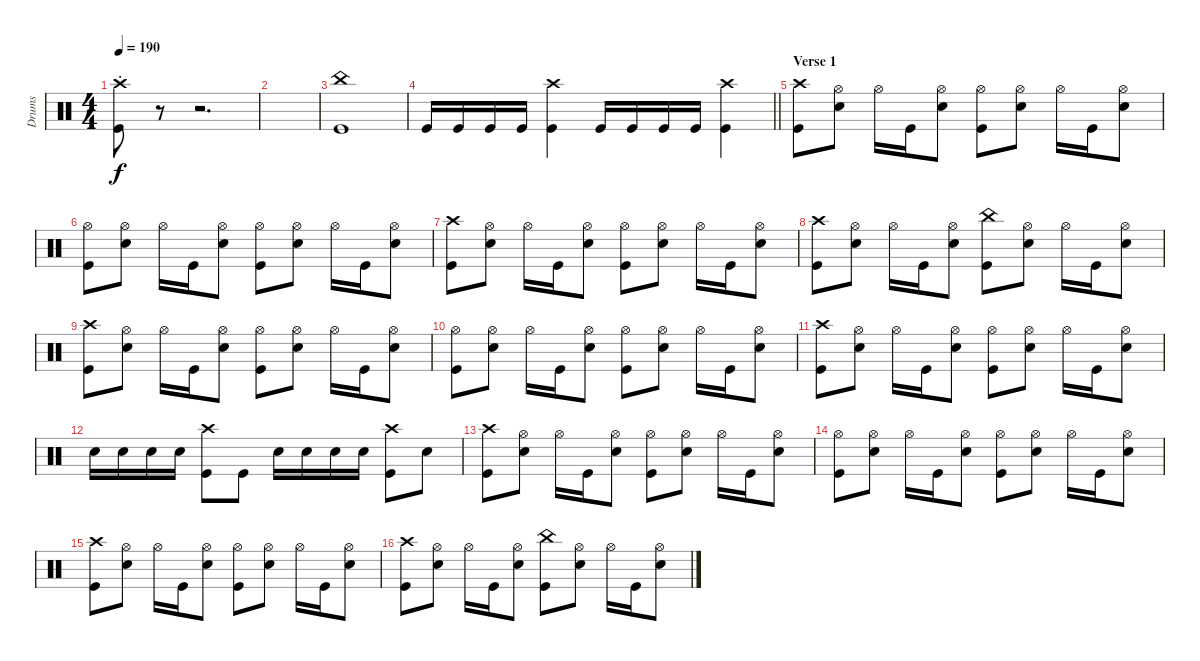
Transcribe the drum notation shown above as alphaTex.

\track ("Drums" "Drums") {instrument percussion}
\staff {score}
\articulation defaults
\ts (4 4)
\section ("" "")
\tempo 190
\clef neutral
\ks c
("Kick (hit)" "Crash high (hit)"{st}).8{dy f} r.8 r.2{d} |
|
("Kick (hit)" "China (hit)").1 |
\barLineRight lightlight "Kick (hit)".16 "Kick (hit)".16 "Kick (hit)".16 "Kick (hit)".16
("Kick (hit)" "Crash high (hit)").4 "Kick (hit)".16 "Kick (hit)".16 "Kick (hit)".16 "Kick (hit)".16 ("Kick (hit)" "Crash high (hit)").4 |
\section ("" "Verse 1")
("Kick (hit)" "Crash high (hit)").8 ("Snare (hit) 2" "Hi-Hat (open)").8 "Hi-Hat (open)".16 "Kick (hit)".16 ("Snare (hit) 2" "Hi-Hat (open)").8 ("Kick (hit)" "Hi-Hat (open)").8 ("Snare (hit) 2" "Hi-Hat (open)").8 "Hi-Hat (open)".16 "Kick (hit)".16 ("Snare (hit) 2" "Hi-Hat (open)").8 |
("Kick (hit)" "Hi-Hat (open)").8 ("Snare (hit) 2" "Hi-Hat (open)").8 "Hi-Hat (open)".16 "Kick (hit)".16 ("Snare (hit) 2" "Hi-Hat (open)").8 ("Kick (hit)" "Hi-Hat (open)").8 ("Snare (hit) 2" "Hi-Hat (open)").8 "Hi-Hat (open)".16 "Kick (hit)".16 ("Snare (hit) 2" "Hi-Hat (open)").8 |
("Kick (hit)" "Crash high (hit)").8 ("Snare (hit) 2" "Hi-Hat (open)").8 "Hi-Hat (open)".16 "Kick (hit)".16 ("Snare (hit) 2" "Hi-Hat (open)").8 ("Kick (hit)" "Hi-Hat (open)").8 ("Snare (hit) 2" "Hi-Hat (open)").8 "Hi-Hat (open)".16 "Kick (hit)".16 ("Snare (hit) 2" "Hi-Hat (open)").8 |
("Kick (hit)" "Crash high (hit)").8 ("Snare (hit) 2" "Hi-Hat (open)").8 "Hi-Hat (open)".16 "Kick (hit)".16 ("Snare (hit) 2" "Hi-Hat (open)").8 ("Kick (hit)" "China (hit)").8 ("Snare (hit) 2" "Hi-Hat (open)").8 "Hi-Hat (open)".16 "Kick (hit)".16 ("Snare (hit) 2" "Hi-Hat (open)").8 |
("Kick (hit)" "Crash high (hit)").8 ("Snare (hit) 2" "Hi-Hat (open)").8 "Hi-Hat (open)".16 "Kick (hit)".16 ("Snare (hit) 2" "Hi-Hat (open)").8 ("Kick (hit)" "Hi-Hat (open)").8 ("Snare (hit) 2" "Hi-Hat (open)").8 "Hi-Hat (open)".16 "Kick (hit)".16 ("Snare (hit) 2" "Hi-Hat (open)").8 |
("Kick (hit)" "Hi-Hat (open)").8 ("Snare (hit) 2" "Hi-Hat (open)").8 "Hi-Hat (open)".16 "Kick (hit)".16 ("Snare (hit) 2" "Hi-Hat (open)").8 ("Kick (hit)" "Hi-Hat (open)").8 ("Snare (hit) 2" "Hi-Hat (open)").8 "Hi-Hat (open)".16 "Kick (hit)".16 ("Snare (hit) 2" "Hi-Hat (open)").8 |
("Kick (hit)" "Crash high (hit)").8 ("Snare (hit) 2" "Hi-Hat (open)").8 "Hi-Hat (open)".16 "Kick (hit)".16 ("Snare (hit) 2" "Hi-Hat (open)").8 ("Kick (hit)" "Hi-Hat (open)").8 ("Snare (hit) 2" "Hi-Hat (open)").8 "Hi-Hat (open)".16 "Kick (hit)".16 ("Snare (hit) 2" "Hi-Hat (open)").8 |
"Snare (hit) 2".16 "Snare (hit) 2".16 "Snare (hit) 2".16 "Snare (hit) 2".16 ("Kick (hit)" "Crash high (hit)").8 "Kick (hit)".8 "Snare (hit) 2".16 "Snare (hit) 2".16 "Snare (hit) 2".16 "Snare (hit) 2".16 ("Kick (hit)" "Crash high (hit)").8 "Snare (hit) 2".8 |
("Kick (hit)" "Crash high (hit)").8 ("Snare (hit) 2" "Hi-Hat (open)").8 "Hi-Hat (open)".16 "Kick (hit)".16 ("Snare (hit) 2" "Hi-Hat (open)").8 ("Kick (hit)" "Hi-Hat (open)").8 ("Snare (hit) 2" "Hi-Hat (open)").8 "Hi-Hat (open)".16 "Kick (hit)".16 ("Snare (hit) 2" "Hi-Hat (open)").8 |
("Kick (hit)" "Hi-Hat (open)").8 ("Snare (hit) 2" "Hi-Hat (open)").8 "Hi-Hat (open)".16 "Kick (hit)".16 ("Snare (hit) 2" "Hi-Hat (open)").8 ("Kick (hit)" "Hi-Hat (open)").8 ("Snare (hit) 2" "Hi-Hat (open)").8 "Hi-Hat (open)".16 "Kick (hit)".16 ("Snare (hit) 2" "Hi-Hat (open)").8 |
("Kick (hit)" "Crash high (hit)").8 ("Snare (hit) 2" "Hi-Hat (open)").8 "Hi-Hat (open)".16 "Kick (hit)".16 ("Snare (hit) 2" "Hi-Hat (open)").8 ("Kick (hit)" "Hi-Hat (open)").8 ("Snare (hit) 2" "Hi-Hat (open)").8 "Hi-Hat (open)".16 "Kick (hit)".16 ("Snare (hit) 2" "Hi-Hat (open)").8 |
("Kick (hit)" "Crash high (hit)").8 ("Snare (hit) 2" "Hi-Hat (open)").8 "Hi-Hat (open)".16 "Kick (hit)".16 ("Snare (hit) 2" "Hi-Hat (open)").8 ("Kick (hit)" "China (hit)").8 ("Snare (hit) 2" "Hi-Hat (open)").8 "Hi-Hat (open)".16 "Kick (hit)".16 ("Snare (hit) 2" "Hi-Hat (open)").8
